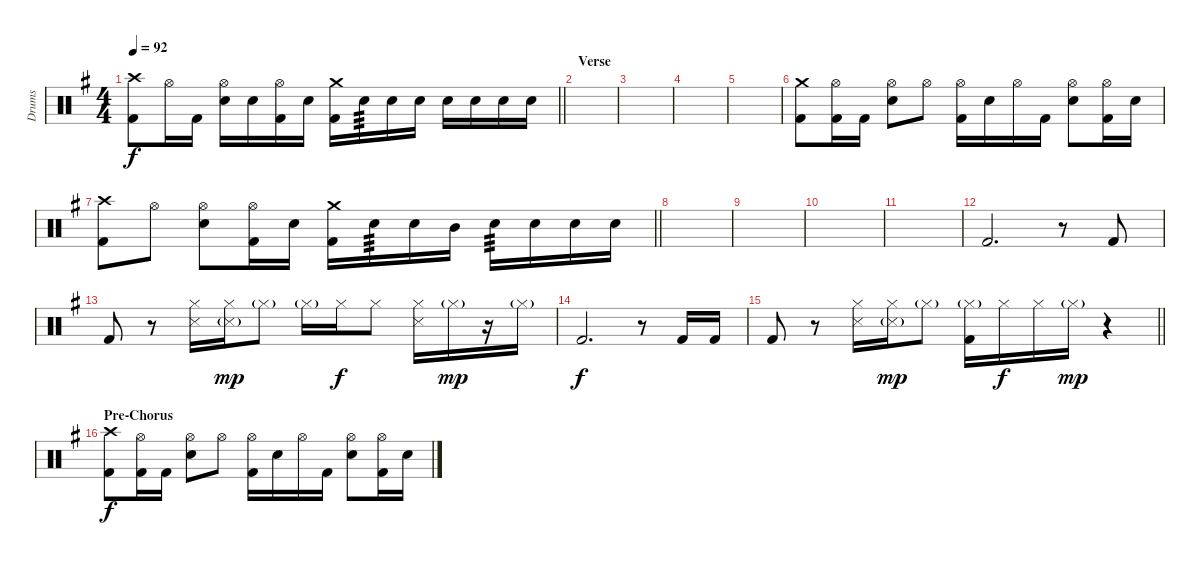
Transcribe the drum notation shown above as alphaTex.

\track ("Drums" "Drums") {instrument percussion}
\staff {score}
\articulation defaults
\ts (4 4)
\tempo 92
\clef neutral
\barLineRight lightlight
\ks g
("Crash high (hit)" "Kick (hit) 2").8{dy f} "Hi-Hat (open)".16 "Kick (hit) 2".16 ("Hi-Hat (open)" "Electric Snare (hit)").16 "Electric Snare (hit)".16 ("Hi-Hat (open)" "Kick (hit) 2").16 "Electric Snare (hit)".16 ("Crash medium (hit)" "Kick (hit) 2").16 "Electric Snare (hit)".16{tp 3} "Electric Snare (hit)".16 "Electric Snare (hit)".16 "Electric Snare (hit)".16 "Electric Snare (hit)".16 "Electric Snare (hit)".16 "Electric Snare (hit)".16 |
\section ("" "Verse")
|
|
|
|
("Crash medium (hit)" "Kick (hit) 2").8 ("Hi-Hat (open)" "Kick (hit) 2").16 "Kick (hit) 2".16 ("Hi-Hat (open)" "Electric Snare (hit)").8 "Hi-Hat (open)".8 ("Hi-Hat (open)" "Kick (hit) 2").16 "Electric Snare (hit)".16 "Hi-Hat (open)".16 "Kick (hit) 2".16 ("Hi-Hat (open)" "Electric Snare (hit)").8 ("Hi-Hat (open)" "Kick (hit) 2").16 "Electric Snare (hit)".16 |
\barLineRight lightlight
("Crash high (hit)" "Kick (hit) 2").8 "Hi-Hat (open)".8 ("Hi-Hat (open)" "Electric Snare (hit)").8 ("Hi-Hat (open)" "Kick (hit) 2").16 "Electric Snare (hit)".16 ("Crash medium (hit)" "Kick (hit) 2").16 "Electric Snare (hit)".16{tp 3} "Electric Snare (hit)".16 "Mid Tom (hit)".16 "Electric Snare (hit)".16{tp 3} "Electric Snare (hit)".16 "Electric Snare (hit)".16 "Electric Snare (hit)".16 |
\section ("" "")
|
|
|
|
"Kick (hit) 2".2{d} r.8 "Kick (hit) 2".8 |
"Kick (hit) 2".8 r.8 ("Hi-Hat (closed)" "Snare (side stick) 3").16 ("Hi-Hat (closed)" "Snare (side stick) 3"{g}).16{dy mp} "Hi-Hat (closed)"{g}.8 "Hi-Hat (closed)"{g}.16 "Hi-Hat (closed)".16{dy f} "Hi-Hat (closed)".8 ("Hi-Hat (closed)" "Snare (side stick) 3").16 "Hi-Hat (closed)"{g}.16{dy mp} r.16 "Hi-Hat (closed)"{g}.16 |
"Kick (hit) 2".2{d dy f} r.8 "Kick (hit) 2".16 "Kick (hit) 2".16 |
\barLineRight lightlight "Kick (hit) 2".8
r.8 ("Hi-Hat (closed)" "Snare (side stick) 3").16 ("Hi-Hat (closed)" "Snare (side stick) 3"{g}).16{dy mp} "Hi-Hat (closed)"{g}.8 ("Hi-Hat (closed)"{g} "Kick (hit) 2").16 "Hi-Hat (closed)".16{dy f} "Hi-Hat (closed)".16 "Hi-Hat (closed)"{g}.16{dy mp} r.4 |
\section ("" "Pre-Chorus")
("Crash high (hit)" "Kick (hit) 2").8{dy f} ("Hi-Hat (open)" "Kick (hit) 2").16 "Kick (hit) 2".16 ("Hi-Hat (open)" "Electric Snare (hit)").8 "Hi-Hat (open)".8 ("Hi-Hat (open)" "Kick (hit) 2").16 "Electric Snare (hit)".16 "Hi-Hat (open)".16 "Kick (hit) 2".16 ("Hi-Hat (open)" "Electric Snare (hit)").8 ("Hi-Hat (open)" "Kick (hit) 2").16 "Electric Snare (hit)".16
